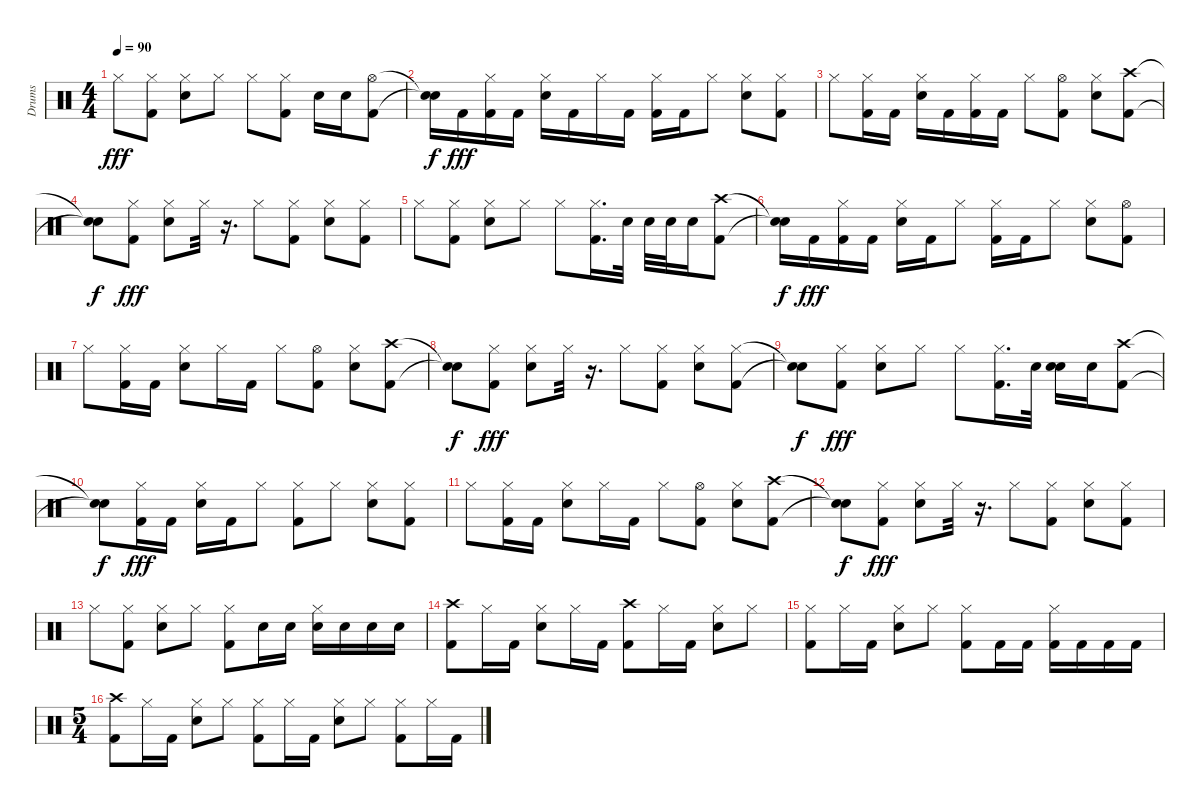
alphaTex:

\track ("Drums" "Drums") {instrument percussion}
\staff {score}
\articulation defaults
\ts (4 4)
\tempo 90
\clef neutral
\ks c "Hi-Hat (closed)".8{dy fff}
("Hi-Hat (closed)" "Kick (hit) 2").8 ("Hi-Hat (closed)" "Snare (hit) 2").8 "Hi-Hat (closed)".8 "Hi-Hat (closed)".8 ("Kick (hit) 2" "Hi-Hat (closed)").8 "Snare (hit) 2".16 "Snare (hit) 2".16 ("Kick (hit) 2" "Hi-Hat (open)").8 |
("Snare (hit)"{t} "Snare (hit)"{t}).16{dy f} "Kick (hit) 2".16{dy fff} ("Hi-Hat (closed)" "Kick (hit) 2").16 "Kick (hit) 2".16 ("Hi-Hat (closed)" "Snare (hit) 2").16 "Kick (hit) 2".16 "Hi-Hat (closed)".16 "Kick (hit) 2".16 ("Kick (hit) 2" "Hi-Hat (closed)").16 "Kick (hit) 2".16 "Hi-Hat (closed)".8 ("Hi-Hat (closed)" "Electric Snare (hit)").8 ("Kick (hit) 2" "Hi-Hat (closed)").8 |
"Hi-Hat (closed)".8 ("Hi-Hat (closed)" "Kick (hit) 2").16 "Kick (hit) 2".16 ("Hi-Hat (closed)" "Electric Snare (hit)").16 "Kick (hit) 2".16 ("Kick (hit) 2" "Hi-Hat (closed)").16 "Kick (hit) 2".16 "Hi-Hat (closed)".8 ("Kick (hit) 2" "Hi-Hat (open)").8 ("Hi-Hat (closed)" "Snare (hit) 2").8 ("Crash high (hit)" "Kick (hit) 2").8 |
("Snare (hit)"{t} "Snare (hit)"{t}).8{dy f} ("Hi-Hat (closed)" "Kick (hit) 2").8{dy fff} ("Snare (hit) 2" "Hi-Hat (closed)").8 "Hi-Hat (closed)".32 r.16{d} "Hi-Hat (closed)".8 ("Kick (hit) 2" "Hi-Hat (closed)").8 ("Electric Snare (hit)" "Hi-Hat (closed)").8 ("Kick (hit) 2" "Hi-Hat (closed)").8 |
"Hi-Hat (closed)".8 ("Hi-Hat (closed)" "Kick (hit) 2").8 ("Hi-Hat (closed)" "Snare (hit) 2").8 "Hi-Hat (closed)".8 "Hi-Hat (closed)".8 ("Hi-Hat (closed)" "Kick (hit) 2").16{d} "Snare (hit) 2".32 "Snare (hit) 2".32 "Electric Snare (hit)".32 "Electric Snare (hit)".16 ("Crash high (hit)" "Kick (hit) 2").8 |
("Snare (hit)"{t} "Snare (hit)"{t}).16{dy f} "Kick (hit) 2".16{dy fff} ("Hi-Hat (closed)" "Kick (hit) 2").16 "Kick (hit) 2".16 ("Hi-Hat (closed)" "Electric Snare (hit)").16 "Kick (hit) 2".16 "Hi-Hat (closed)".8 ("Kick (hit) 2" "Hi-Hat (closed)").16 "Kick (hit) 2".16 "Hi-Hat (closed)".8 ("Hi-Hat (closed)" "Electric Snare (hit)").8 ("Kick (hit) 2" "Hi-Hat (open)").8 |
"Hi-Hat (closed)".8 ("Hi-Hat (closed)" "Kick (hit) 2").16 "Kick (hit) 2".16 ("Snare (hit) 2" "Hi-Hat (closed)").8 "Hi-Hat (closed)".16 "Kick (hit) 2".16 "Hi-Hat (closed)".8 ("Kick (hit) 2" "Hi-Hat (open)").8 ("Snare (hit) 2" "Hi-Hat (closed)").8 ("Crash high (hit)" "Kick (hit) 2").8 |
("Snare (hit)"{t} "Snare (hit)"{t}).8{dy f} ("Hi-Hat (closed)" "Kick (hit) 2").8{dy fff} ("Snare (hit) 2" "Hi-Hat (closed)").8 "Hi-Hat (closed)".32 r.16{d} "Hi-Hat (closed)".8 ("Kick (hit) 2" "Hi-Hat (closed)").8 ("Hi-Hat (closed)" "Electric Snare (hit)").8 ("Hi-Hat (closed)" "Kick (hit) 2").8 |
("Snare (hit)"{t} "Snare (hit)"{t}).8{dy f} ("Hi-Hat (closed)" "Kick (hit) 2").8{dy fff} ("Hi-Hat (closed)" "Snare (hit) 2").8 "Hi-Hat (closed)".8 "Hi-Hat (closed)".8 ("Hi-Hat (closed)" "Kick (hit) 2").16{d} "Snare (hit) 2".32 ("Snare (hit) 2" "Electric Snare (hit)").16 "Electric Snare (hit)".16 ("Crash high (hit)" "Kick (hit) 2").8 |
("Snare (hit)"{t} "Snare (hit)"{t}).8{dy f} ("Hi-Hat (closed)" "Kick (hit) 2").16{dy fff} "Kick (hit) 2".16 ("Hi-Hat (closed)" "Snare (hit) 2").16 "Kick (hit) 2".16 "Hi-Hat (closed)".8 ("Hi-Hat (closed)" "Kick (hit) 2").8 "Hi-Hat (closed)".8 ("Hi-Hat (closed)" "Electric Snare (hit)").8 ("Hi-Hat (closed)" "Kick (hit) 2").8 |
"Hi-Hat (closed)".8 ("Hi-Hat (closed)" "Kick (hit) 2").16 "Kick (hit) 2".16 ("Snare (hit) 2" "Hi-Hat (closed)").8 "Hi-Hat (closed)".16 "Kick (hit) 2".16 "Hi-Hat (closed)".8 ("Kick (hit) 2" "Hi-Hat (open)").8 ("Snare (hit) 2" "Hi-Hat (closed)").8 ("Crash high (hit)" "Kick (hit) 2").8 |
("Snare (hit)"{t} "Snare (hit)"{t}).8{dy f} ("Hi-Hat (closed)" "Kick (hit) 2").8{dy fff} ("Snare (hit) 2" "Hi-Hat (closed)").8 "Hi-Hat (closed)".32 r.16{d} "Hi-Hat (closed)".8 ("Kick (hit) 2" "Hi-Hat (closed)").8 ("Electric Snare (hit)" "Hi-Hat (closed)").8 ("Kick (hit) 2" "Hi-Hat (closed)").8 |
"Hi-Hat (closed)".8 ("Hi-Hat (closed)" "Kick (hit) 2").8 ("Hi-Hat (closed)" "Snare (hit) 2").8 "Hi-Hat (closed)".8 ("Hi-Hat (closed)" "Kick (hit) 2").8 "Electric Snare (hit)".16 "Snare (hit) 2".16 ("Snare (hit) 2" "Hi-Hat (closed)").16 "Snare (hit) 2".16 "Snare (hit) 2".16 "Snare (hit) 2".16 |
("Crash high (hit)" "Kick (hit) 2").8 "Hi-Hat (closed)".16 "Kick (hit) 2".16 ("Hi-Hat (closed)" "Electric Snare (hit)").8 "Hi-Hat (closed)".16 "Kick (hit) 2".16 ("Kick (hit) 2" "Crash high (hit)").8 "Hi-Hat (closed)".16 "Kick (hit) 2".16 ("Hi-Hat (closed)" "Snare (hit) 2").8 "Hi-Hat (closed)".8 |
("Hi-Hat (closed)" "Kick (hit) 2").8 "Hi-Hat (closed)".16 "Kick (hit) 2".16 ("Electric Snare (hit)" "Hi-Hat (closed)").8 "Hi-Hat (closed)".8 ("Kick (hit) 2" "Hi-Hat (closed)").8 "Kick (hit) 2".16 "Kick (hit) 2".16 ("Hi-Hat (closed)" "Kick (hit) 2").16 "Kick (hit) 2".16 "Kick (hit) 2".16 "Kick (hit) 2".16 |
\ts (5 4)
("Crash high (hit)" "Kick (hit) 2").8 "Hi-Hat (closed)".16 "Kick (hit) 2".16 ("Electric Snare (hit)" "Hi-Hat (closed)").8 "Hi-Hat (closed)".8 ("Kick (hit) 2" "Hi-Hat (closed)").8 "Hi-Hat (closed)".16 "Kick (hit) 2".16 ("Snare (hit) 2" "Hi-Hat (closed)").8 "Hi-Hat (closed)".8 ("Hi-Hat (closed)" "Kick (hit) 2").8 "Hi-Hat (closed)".16 "Kick (hit) 2".16
